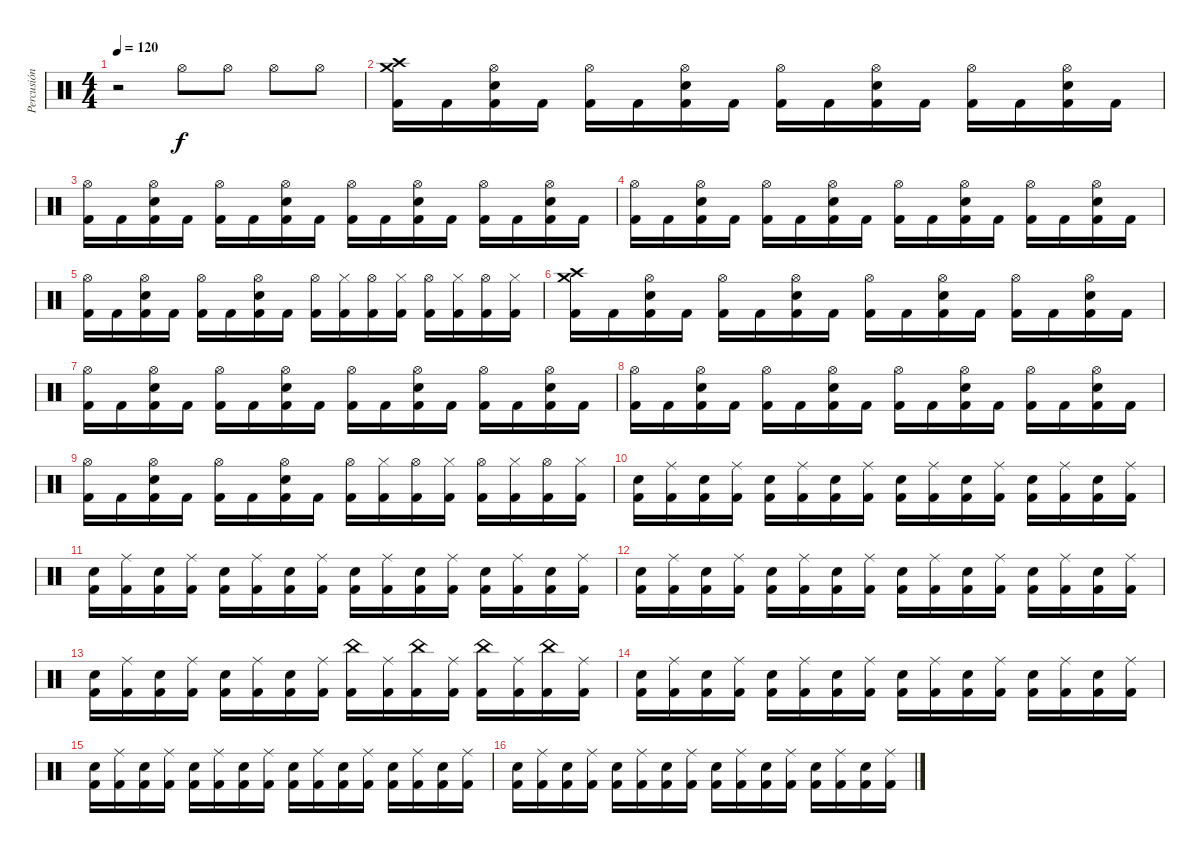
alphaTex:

\track ("Percusión" "Percusión") {instrument percussion}
\staff {score}
\articulation defaults
\ts (4 4)
\tempo 120
\clef neutral
\ks c
r.2{dy f} "Hi-Hat (open)".8 "Hi-Hat (open)".8 "Hi-Hat (open)".8 "Hi-Hat (open)".8 |
("Crash high (hit)" "Crash medium (hit)" "Kick (hit) 2").16 "Kick (hit) 2".16 ("Hi-Hat (open)" "Electric Snare (hit)" "Kick (hit) 2").16 "Kick (hit) 2".16 ("Hi-Hat (open)" "Kick (hit) 2").16 "Kick (hit) 2".16 ("Hi-Hat (open)" "Electric Snare (hit)" "Kick (hit) 2").16 "Kick (hit) 2".16 ("Hi-Hat (open)" "Kick (hit) 2").16 "Kick (hit) 2".16 ("Hi-Hat (open)" "Electric Snare (hit)" "Kick (hit) 2").16 "Kick (hit) 2".16 ("Hi-Hat (open)" "Kick (hit) 2").16 "Kick (hit) 2".16 ("Hi-Hat (open)" "Electric Snare (hit)" "Kick (hit) 2").16 "Kick (hit) 2".16 |
("Hi-Hat (open)" "Kick (hit) 2").16 "Kick (hit) 2".16 ("Hi-Hat (open)" "Electric Snare (hit)" "Kick (hit) 2").16 "Kick (hit) 2".16 ("Hi-Hat (open)" "Kick (hit) 2").16 "Kick (hit) 2".16 ("Hi-Hat (open)" "Electric Snare (hit)" "Kick (hit) 2").16 "Kick (hit) 2".16 ("Hi-Hat (open)" "Kick (hit) 2").16 "Kick (hit) 2".16 ("Hi-Hat (open)" "Electric Snare (hit)" "Kick (hit) 2").16 "Kick (hit) 2".16 ("Hi-Hat (open)" "Kick (hit) 2").16 "Kick (hit) 2".16 ("Hi-Hat (open)" "Electric Snare (hit)" "Kick (hit) 2").16 "Kick (hit) 2".16 |
("Hi-Hat (open)" "Kick (hit) 2").16 "Kick (hit) 2".16 ("Hi-Hat (open)" "Electric Snare (hit)" "Kick (hit) 2").16 "Kick (hit) 2".16 ("Hi-Hat (open)" "Kick (hit) 2").16 "Kick (hit) 2".16 ("Hi-Hat (open)" "Electric Snare (hit)" "Kick (hit) 2").16 "Kick (hit) 2".16 ("Hi-Hat (open)" "Kick (hit) 2").16 "Kick (hit) 2".16 ("Hi-Hat (open)" "Electric Snare (hit)" "Kick (hit) 2").16 "Kick (hit) 2".16 ("Hi-Hat (open)" "Kick (hit) 2").16 "Kick (hit) 2".16 ("Hi-Hat (open)" "Electric Snare (hit)" "Kick (hit) 2").16 "Kick (hit) 2".16 |
("Hi-Hat (open)" "Kick (hit) 2").16 "Kick (hit) 2".16 ("Hi-Hat (open)" "Electric Snare (hit)" "Kick (hit) 2").16 "Kick (hit) 2".16 ("Hi-Hat (open)" "Kick (hit) 2").16 "Kick (hit) 2".16 ("Hi-Hat (open)" "Electric Snare (hit)" "Kick (hit) 2").16 "Kick (hit) 2".16 ("Hi-Hat (open)" "Kick (hit) 2").16 ("Hi-Hat (closed)" "Kick (hit) 2").16 ("Hi-Hat (open)" "Kick (hit) 2").16 ("Hi-Hat (closed)" "Kick (hit) 2").16 ("Hi-Hat (open)" "Kick (hit) 2").16 ("Hi-Hat (closed)" "Kick (hit) 2").16 ("Hi-Hat (open)" "Kick (hit) 2").16 ("Hi-Hat (closed)" "Kick (hit) 2").16 |
("Crash high (hit)" "Crash medium (hit)" "Kick (hit) 2").16 "Kick (hit) 2".16 ("Hi-Hat (open)" "Electric Snare (hit)" "Kick (hit) 2").16 "Kick (hit) 2".16 ("Hi-Hat (open)" "Kick (hit) 2").16 "Kick (hit) 2".16 ("Hi-Hat (open)" "Electric Snare (hit)" "Kick (hit) 2").16 "Kick (hit) 2".16 ("Hi-Hat (open)" "Kick (hit) 2").16 "Kick (hit) 2".16 ("Hi-Hat (open)" "Electric Snare (hit)" "Kick (hit) 2").16 "Kick (hit) 2".16 ("Hi-Hat (open)" "Kick (hit) 2").16 "Kick (hit) 2".16 ("Hi-Hat (open)" "Electric Snare (hit)" "Kick (hit) 2").16 "Kick (hit) 2".16 |
("Hi-Hat (open)" "Kick (hit) 2").16 "Kick (hit) 2".16 ("Hi-Hat (open)" "Electric Snare (hit)" "Kick (hit) 2").16 "Kick (hit) 2".16 ("Hi-Hat (open)" "Kick (hit) 2").16 "Kick (hit) 2".16 ("Hi-Hat (open)" "Electric Snare (hit)" "Kick (hit) 2").16 "Kick (hit) 2".16 ("Hi-Hat (open)" "Kick (hit) 2").16 "Kick (hit) 2".16 ("Hi-Hat (open)" "Electric Snare (hit)" "Kick (hit) 2").16 "Kick (hit) 2".16 ("Hi-Hat (open)" "Kick (hit) 2").16 "Kick (hit) 2".16 ("Hi-Hat (open)" "Electric Snare (hit)" "Kick (hit) 2").16 "Kick (hit) 2".16 |
("Hi-Hat (open)" "Kick (hit) 2").16 "Kick (hit) 2".16 ("Hi-Hat (open)" "Electric Snare (hit)" "Kick (hit) 2").16 "Kick (hit) 2".16 ("Hi-Hat (open)" "Kick (hit) 2").16 "Kick (hit) 2".16 ("Hi-Hat (open)" "Electric Snare (hit)" "Kick (hit) 2").16 "Kick (hit) 2".16 ("Hi-Hat (open)" "Kick (hit) 2").16 "Kick (hit) 2".16 ("Hi-Hat (open)" "Electric Snare (hit)" "Kick (hit) 2").16 "Kick (hit) 2".16 ("Hi-Hat (open)" "Kick (hit) 2").16 "Kick (hit) 2".16 ("Hi-Hat (open)" "Electric Snare (hit)" "Kick (hit) 2").16 "Kick (hit) 2".16 |
("Hi-Hat (open)" "Kick (hit) 2").16 "Kick (hit) 2".16 ("Hi-Hat (open)" "Electric Snare (hit)" "Kick (hit) 2").16 "Kick (hit) 2".16 ("Hi-Hat (open)" "Kick (hit) 2").16 "Kick (hit) 2".16 ("Hi-Hat (open)" "Electric Snare (hit)" "Kick (hit) 2").16 "Kick (hit) 2".16 ("Hi-Hat (open)" "Kick (hit) 2").16 ("Hi-Hat (closed)" "Kick (hit) 2").16 ("Hi-Hat (open)" "Kick (hit) 2").16 ("Hi-Hat (closed)" "Kick (hit) 2").16 ("Hi-Hat (open)" "Kick (hit) 2").16 ("Hi-Hat (closed)" "Kick (hit) 2").16 ("Hi-Hat (open)" "Kick (hit) 2").16 ("Hi-Hat (closed)" "Kick (hit) 2").16 |
("Electric Snare (hit)" "Kick (hit) 2").16 ("Ride (middle)" "Kick (hit) 2").16 ("Electric Snare (hit)" "Kick (hit) 2").16 ("Ride (middle)" "Kick (hit) 2").16 ("Electric Snare (hit)" "Kick (hit) 2").16 ("Ride (middle)" "Kick (hit) 2").16 ("Electric Snare (hit)" "Kick (hit) 2").16 ("Ride (middle)" "Kick (hit) 2").16 ("Electric Snare (hit)" "Kick (hit) 2").16 ("Ride (middle)" "Kick (hit) 2").16 ("Electric Snare (hit)" "Kick (hit) 2").16 ("Ride (middle)" "Kick (hit) 2").16 ("Electric Snare (hit)" "Kick (hit) 2").16 ("Ride (middle)" "Kick (hit) 2").16 ("Electric Snare (hit)" "Kick (hit) 2").16 ("Ride (middle)" "Kick (hit) 2").16 |
("Electric Snare (hit)" "Kick (hit) 2").16 ("Ride (middle)" "Kick (hit) 2").16 ("Electric Snare (hit)" "Kick (hit) 2").16 ("Ride (middle)" "Kick (hit) 2").16 ("Electric Snare (hit)" "Kick (hit) 2").16 ("Ride (middle)" "Kick (hit) 2").16 ("Electric Snare (hit)" "Kick (hit) 2").16 ("Ride (middle)" "Kick (hit) 2").16 ("Electric Snare (hit)" "Kick (hit) 2").16 ("Ride (middle)" "Kick (hit) 2").16 ("Electric Snare (hit)" "Kick (hit) 2").16 ("Ride (middle)" "Kick (hit) 2").16 ("Electric Snare (hit)" "Kick (hit) 2").16 ("Ride (middle)" "Kick (hit) 2").16 ("Electric Snare (hit)" "Kick (hit) 2").16 ("Ride (middle)" "Kick (hit) 2").16 |
("Electric Snare (hit)" "Kick (hit) 2").16 ("Ride (middle)" "Kick (hit) 2").16 ("Electric Snare (hit)" "Kick (hit) 2").16 ("Ride (middle)" "Kick (hit) 2").16 ("Electric Snare (hit)" "Kick (hit) 2").16 ("Ride (middle)" "Kick (hit) 2").16 ("Electric Snare (hit)" "Kick (hit) 2").16 ("Ride (middle)" "Kick (hit) 2").16 ("Electric Snare (hit)" "Kick (hit) 2").16 ("Ride (middle)" "Kick (hit) 2").16 ("Electric Snare (hit)" "Kick (hit) 2").16 ("Ride (middle)" "Kick (hit) 2").16 ("Electric Snare (hit)" "Kick (hit) 2").16 ("Ride (middle)" "Kick (hit) 2").16 ("Electric Snare (hit)" "Kick (hit) 2").16 ("Ride (middle)" "Kick (hit) 2").16 |
("Electric Snare (hit)" "Kick (hit) 2").16 ("Ride (middle)" "Kick (hit) 2").16 ("Electric Snare (hit)" "Kick (hit) 2").16 ("Ride (middle)" "Kick (hit) 2").16 ("Electric Snare (hit)" "Kick (hit) 2").16 ("Ride (middle)" "Kick (hit) 2").16 ("Electric Snare (hit)" "Kick (hit) 2").16 ("Ride (middle)" "Kick (hit) 2").16 ("China (hit)" "Kick (hit) 2").16 ("Ride (middle)" "Kick (hit) 2").16 ("China (hit)" "Kick (hit) 2").16 ("Ride (middle)" "Kick (hit) 2").16 ("China (hit)" "Kick (hit) 2").16 ("Ride (middle)" "Kick (hit) 2").16 ("China (hit)" "Kick (hit) 2").16 ("Ride (middle)" "Kick (hit) 2").16 |
("Electric Snare (hit)" "Kick (hit) 2").16 ("Ride (middle)" "Kick (hit) 2").16 ("Electric Snare (hit)" "Kick (hit) 2").16 ("Ride (middle)" "Kick (hit) 2").16 ("Electric Snare (hit)" "Kick (hit) 2").16 ("Ride (middle)" "Kick (hit) 2").16 ("Electric Snare (hit)" "Kick (hit) 2").16 ("Ride (middle)" "Kick (hit) 2").16 ("Electric Snare (hit)" "Kick (hit) 2").16 ("Ride (middle)" "Kick (hit) 2").16 ("Electric Snare (hit)" "Kick (hit) 2").16 ("Ride (middle)" "Kick (hit) 2").16 ("Electric Snare (hit)" "Kick (hit) 2").16 ("Ride (middle)" "Kick (hit) 2").16 ("Electric Snare (hit)" "Kick (hit) 2").16 ("Ride (middle)" "Kick (hit) 2").16 |
("Electric Snare (hit)" "Kick (hit) 2").16 ("Ride (middle)" "Kick (hit) 2").16 ("Electric Snare (hit)" "Kick (hit) 2").16 ("Ride (middle)" "Kick (hit) 2").16 ("Electric Snare (hit)" "Kick (hit) 2").16 ("Ride (middle)" "Kick (hit) 2").16 ("Electric Snare (hit)" "Kick (hit) 2").16 ("Ride (middle)" "Kick (hit) 2").16 ("Electric Snare (hit)" "Kick (hit) 2").16 ("Ride (middle)" "Kick (hit) 2").16 ("Electric Snare (hit)" "Kick (hit) 2").16 ("Ride (middle)" "Kick (hit) 2").16 ("Electric Snare (hit)" "Kick (hit) 2").16 ("Ride (middle)" "Kick (hit) 2").16 ("Electric Snare (hit)" "Kick (hit) 2").16 ("Ride (middle)" "Kick (hit) 2").16 |
("Electric Snare (hit)" "Kick (hit) 2").16 ("Ride (middle)" "Kick (hit) 2").16 ("Electric Snare (hit)" "Kick (hit) 2").16 ("Ride (middle)" "Kick (hit) 2").16 ("Electric Snare (hit)" "Kick (hit) 2").16 ("Ride (middle)" "Kick (hit) 2").16 ("Electric Snare (hit)" "Kick (hit) 2").16 ("Ride (middle)" "Kick (hit) 2").16 ("Electric Snare (hit)" "Kick (hit) 2").16 ("Ride (middle)" "Kick (hit) 2").16 ("Electric Snare (hit)" "Kick (hit) 2").16 ("Ride (middle)" "Kick (hit) 2").16 ("Electric Snare (hit)" "Kick (hit) 2").16 ("Ride (middle)" "Kick (hit) 2").16 ("Electric Snare (hit)" "Kick (hit) 2").16 ("Ride (middle)" "Kick (hit) 2").16
